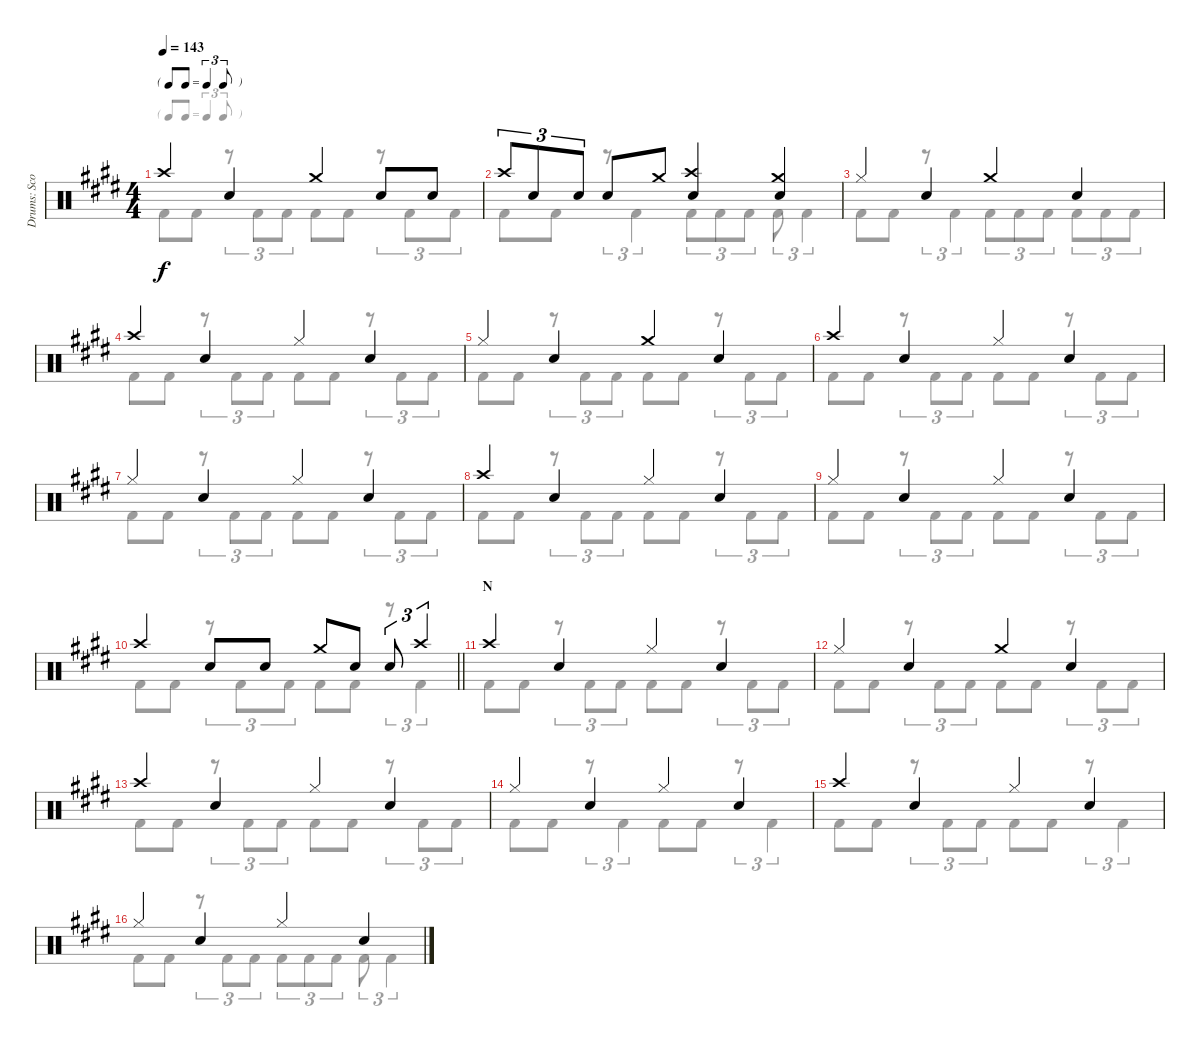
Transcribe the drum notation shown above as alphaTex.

\track ("Drums: Scott" "Drums: Sco") {instrument percussion}
\staff {score}
\articulation defaults
\voice
\ts (4 4)
\tf triplet8th
\tempo 143
\clef neutral
\ks e "Crash high (hit)".4{dy f} "Snare (hit) 2".4 "Crash medium (hit)".4 "Snare (hit) 2".8 "Electric Snare (hit)".8
|
"Crash high (hit)".8{tu (3 2)} "Snare (hit) 2".8{tu (3 2)} "Snare (hit) 2".8{tu (3 2)} "Snare (hit) 2".8 "Crash medium (hit)".8 ("Crash high (hit)" "Snare (hit) 2").4 ("Crash medium (hit)" "Snare (hit) 2").4 |
"Hi-Hat (closed)".4 "Snare (hit) 2".4 "Crash medium (hit)".4 "Snare (hit) 2".4 |
"Crash high (hit)".4 "Snare (hit) 2".4 "Hi-Hat (closed)".4 "Snare (hit) 2".4 |
"Hi-Hat (closed)".4 "Snare (hit) 2".4 "Crash medium (hit)".4 "Snare (hit) 2".4 |
"Crash high (hit)".4 "Snare (hit) 2".4 "Hi-Hat (closed)".4 "Snare (hit) 2".4 |
"Hi-Hat (closed)".4 "Snare (hit) 2".4 "Hi-Hat (closed)".4 "Snare (hit) 2".4 |
"Crash high (hit)".4 "Snare (hit) 2".4 "Hi-Hat (closed)".4 "Snare (hit) 2".4 |
"Hi-Hat (closed)".4 "Snare (hit) 2".4 "Hi-Hat (closed)".4 "Snare (hit) 2".4 |
\barLineRight lightlight "Crash high (hit)".4 "Snare (hit) 2".8 "Electric Snare (hit)".8 "Crash medium (hit)".8 "Snare (hit) 2".8 "Snare (hit) 2".8{tu (3 2)} "Crash high (hit)".4{tu (3 2)}
|
\section ("" "N")
"Crash high (hit)".4 "Snare (hit) 2".4 "Hi-Hat (closed)".4 "Snare (hit) 2".4 |
"Hi-Hat (closed)".4 "Snare (hit) 2".4 "Crash medium (hit)".4 "Snare (hit) 2".4 |
"Crash high (hit)".4 "Snare (hit) 2".4 "Hi-Hat (closed)".4 "Snare (hit) 2".4 |
"Hi-Hat (closed)".4 "Snare (hit) 2".4 "Hi-Hat (closed)".4 "Snare (hit) 2".4 |
"Crash high (hit)".4 "Snare (hit) 2".4 "Hi-Hat (closed)".4 "Snare (hit) 2".4 |
"Hi-Hat (closed)".4 "Snare (hit) 2".4 "Hi-Hat (closed)".4 "Snare (hit) 2".4
\voice
\clef neutral
\ottava regular
\simile none
\ks e "Kick (hit) 2".8{dy f} "Kick (hit) 2".8
r.8{tu (3 2)} "Kick (hit) 2".8{tu (3 2)} "Kick (hit) 2".8{tu (3 2)} "Kick (hit) 2".8 "Kick (hit) 2".8 r.8{tu (3 2)} "Kick (hit) 2".8{tu (3 2)} "Kick (hit) 2".8{tu (3 2)} |
"Kick (hit) 2".8 "Kick (hit) 2".8 r.8{tu (3 2)} "Kick (hit) 2".4{tu (3 2)} "Kick (hit) 2".8{tu (3 2)} "Kick (hit) 2".8{tu (3 2)} "Kick (hit) 2".8{tu (3 2)} "Kick (hit) 2".8{tu (3 2)} "Kick (hit) 2".4{tu (3 2)} |
"Kick (hit) 2".8 "Kick (hit) 2".8 r.8{tu (3 2)} "Kick (hit) 2".4{tu (3 2)} "Kick (hit) 2".8{tu (3 2)} "Kick (hit) 2".8{tu (3 2)} "Kick (hit) 2".8{tu (3 2)} "Kick (hit) 2".8{tu (3 2)} "Kick (hit) 2".8{tu (3 2)} "Kick (hit) 2".8{tu (3 2)} |
"Kick (hit) 2".8 "Kick (hit) 2".8 r.8{tu (3 2)} "Kick (hit) 2".8{tu (3 2)} "Kick (hit) 2".8{tu (3 2)} "Kick (hit) 2".8 "Kick (hit) 2".8 r.8{tu (3 2)} "Kick (hit) 2".8{tu (3 2)} "Kick (hit) 2".8{tu (3 2)} |
"Kick (hit) 2".8 "Kick (hit) 2".8 r.8{tu (3 2)} "Kick (hit) 2".8{tu (3 2)} "Kick (hit) 2".8{tu (3 2)} "Kick (hit) 2".8 "Kick (hit) 2".8 r.8{tu (3 2)} "Kick (hit) 2".8{tu (3 2)} "Kick (hit) 2".8{tu (3 2)} |
"Kick (hit) 2".8 "Kick (hit) 2".8 r.8{tu (3 2)} "Kick (hit) 2".8{tu (3 2)} "Kick (hit) 2".8{tu (3 2)} "Kick (hit) 2".8 "Kick (hit) 2".8 r.8{tu (3 2)} "Kick (hit) 2".8{tu (3 2)} "Kick (hit) 2".8{tu (3 2)} |
"Kick (hit) 2".8 "Kick (hit) 2".8 r.8{tu (3 2)} "Kick (hit) 2".8{tu (3 2)} "Kick (hit) 2".8{tu (3 2)} "Kick (hit) 2".8 "Kick (hit) 2".8 r.8{tu (3 2)} "Kick (hit) 2".8{tu (3 2)} "Kick (hit) 2".8{tu (3 2)} |
"Kick (hit) 2".8 "Kick (hit) 2".8 r.8{tu (3 2)} "Kick (hit) 2".8{tu (3 2)} "Kick (hit) 2".8{tu (3 2)} "Kick (hit) 2".8 "Kick (hit) 2".8 r.8{tu (3 2)} "Kick (hit) 2".8{tu (3 2)} "Kick (hit) 2".8{tu (3 2)} |
"Kick (hit) 2".8 "Kick (hit) 2".8 r.8{tu (3 2)} "Kick (hit) 2".8{tu (3 2)} "Kick (hit) 2".8{tu (3 2)} "Kick (hit) 2".8 "Kick (hit) 2".8 r.8{tu (3 2)} "Kick (hit) 2".8{tu (3 2)} "Kick (hit) 2".8{tu (3 2)} |
\barLineRight lightlight "Kick (hit) 2".8 "Kick (hit) 2".8
r.8{tu (3 2)} "Kick (hit) 2".8{tu (3 2)} "Kick (hit) 2".8{tu (3 2)} "Kick (hit) 2".8 "Kick (hit) 2".8 r.8{tu (3 2)} "Kick (hit) 2".4{tu (3 2)} |
"Kick (hit) 2".8 "Kick (hit) 2".8 r.8{tu (3 2)} "Kick (hit) 2".8{tu (3 2)} "Kick (hit) 2".8{tu (3 2)} "Kick (hit) 2".8 "Kick (hit) 2".8 r.8{tu (3 2)} "Kick (hit) 2".8{tu (3 2)} "Kick (hit) 2".8{tu (3 2)} |
"Kick (hit) 2".8 "Kick (hit) 2".8 r.8{tu (3 2)} "Kick (hit) 2".8{tu (3 2)} "Kick (hit) 2".8{tu (3 2)} "Kick (hit) 2".8 "Kick (hit) 2".8 r.8{tu (3 2)} "Kick (hit) 2".8{tu (3 2)} "Kick (hit) 2".8{tu (3 2)} |
"Kick (hit) 2".8 "Kick (hit) 2".8 r.8{tu (3 2)} "Kick (hit) 2".8{tu (3 2)} "Kick (hit) 2".8{tu (3 2)} "Kick (hit) 2".8 "Kick (hit) 2".8 r.8{tu (3 2)} "Kick (hit) 2".8{tu (3 2)} "Kick (hit) 2".8{tu (3 2)} |
"Kick (hit) 2".8 "Kick (hit) 2".8 r.8{tu (3 2)} "Kick (hit) 2".4{tu (3 2)} "Kick (hit) 2".8 "Kick (hit) 2".8 r.8{tu (3 2)} "Kick (hit) 2".4{tu (3 2)} |
"Kick (hit) 2".8 "Kick (hit) 2".8 r.8{tu (3 2)} "Kick (hit) 2".8{tu (3 2)} "Kick (hit) 2".8{tu (3 2)} "Kick (hit) 2".8 "Kick (hit) 2".8 r.8{tu (3 2)} "Kick (hit) 2".4{tu (3 2)} |
"Kick (hit) 2".8 "Kick (hit) 2".8 r.8{tu (3 2)} "Kick (hit) 2".8{tu (3 2)} "Kick (hit) 2".8{tu (3 2)} "Kick (hit) 2".8{tu (3 2)} "Kick (hit) 2".8{tu (3 2)} "Kick (hit) 2".8{tu (3 2)} "Kick (hit) 2".8{tu (3 2)} "Kick (hit) 2".4{tu (3 2)}
